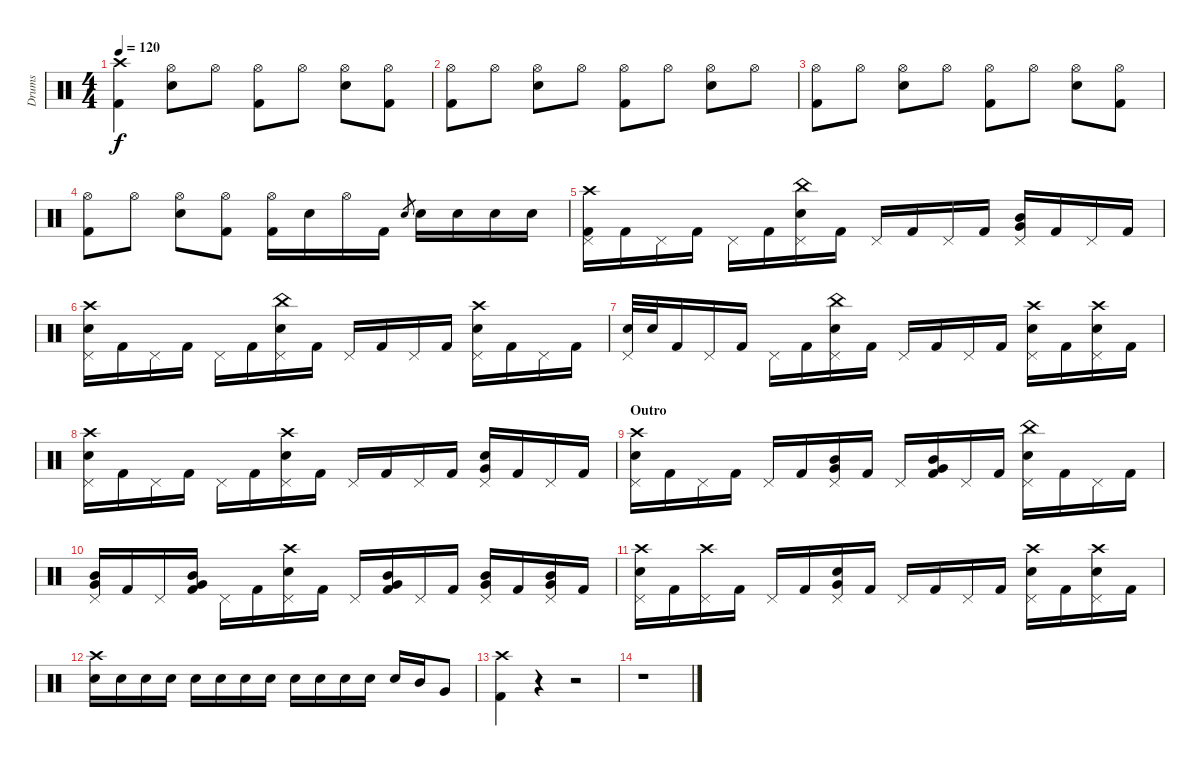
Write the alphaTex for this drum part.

\track ("Drums" "Drums") {instrument percussion}
\staff {score}
\articulation defaults
\ts (4 4)
\tempo 120
\clef neutral
\ks c
("Crash high (hit)" "Kick (hit) 2").4{dy f} ("Hi-Hat (open)" "Electric Snare (hit)").8 "Hi-Hat (open)".8 ("Hi-Hat (open)" "Kick (hit) 2").8 "Hi-Hat (open)".8 ("Hi-Hat (open)" "Electric Snare (hit)").8 ("Hi-Hat (open)" "Kick (hit) 2").8 |
("Hi-Hat (open)" "Kick (hit) 2").8 "Hi-Hat (open)".8 ("Hi-Hat (open)" "Electric Snare (hit)").8 "Hi-Hat (open)".8 ("Hi-Hat (open)" "Kick (hit) 2").8 "Hi-Hat (open)".8 ("Hi-Hat (open)" "Electric Snare (hit)").8 "Hi-Hat (open)".8 |
("Hi-Hat (open)" "Kick (hit) 2").8 "Hi-Hat (open)".8 ("Hi-Hat (open)" "Electric Snare (hit)").8 "Hi-Hat (open)".8 ("Hi-Hat (open)" "Kick (hit) 2").8 "Hi-Hat (open)".8 ("Hi-Hat (open)" "Electric Snare (hit)").8 ("Hi-Hat (open)" "Kick (hit) 2").8 |
("Hi-Hat (open)" "Kick (hit) 2").8 "Hi-Hat (open)".8 ("Hi-Hat (open)" "Electric Snare (hit)").8 ("Hi-Hat (open)" "Kick (hit) 2").8 ("Hi-Hat (open)" "Kick (hit) 2").16 "Electric Snare (hit)".16 "Hi-Hat (open)".16 "Kick (hit) 2".16 "Electric Snare (hit)".8{gr} "Electric Snare (hit)".16 "Electric Snare (hit)".16 "Electric Snare (hit)".16 "Electric Snare (hit)".16 |
("Crash high (hit)" "Kick (hit) 2" "Pedal Hi-Hat (hit)").16 "Kick (hit) 2".16 "Pedal Hi-Hat (hit)".16 "Kick (hit) 2".16 "Pedal Hi-Hat (hit)".16 "Kick (hit) 2".16 ("China (hit)" "Electric Snare (hit)" "Pedal Hi-Hat (hit)").16 "Kick (hit) 2".16 "Pedal Hi-Hat (hit)".16 "Kick (hit) 2".16 "Pedal Hi-Hat (hit)".16 "Kick (hit) 2".16 ("Mid Tom (hit)" "Very Low Tom (hit)" "Pedal Hi-Hat (hit)").16 "Kick (hit) 2".16 "Pedal Hi-Hat (hit)".16 "Kick (hit) 2".16 |
("Crash high (hit)" "Electric Snare (hit)" "Pedal Hi-Hat (hit)").16 "Kick (hit) 2".16 "Pedal Hi-Hat (hit)".16 "Kick (hit) 2".16 "Pedal Hi-Hat (hit)".16 "Kick (hit) 2".16 ("China (hit)" "Electric Snare (hit)" "Pedal Hi-Hat (hit)").16 "Kick (hit) 2".16 "Pedal Hi-Hat (hit)".16 "Kick (hit) 2".16 "Pedal Hi-Hat (hit)".16 "Kick (hit) 2".16 ("Crash high (hit)" "Electric Snare (hit)" "Pedal Hi-Hat (hit)").16 "Kick (hit) 2".16 "Pedal Hi-Hat (hit)".16 "Kick (hit) 2".16 |
("Electric Snare (hit)" "Pedal Hi-Hat (hit)").32 "Electric Snare (hit)".32 "Kick (hit) 2".16 "Pedal Hi-Hat (hit)".16 "Kick (hit) 2".16 "Pedal Hi-Hat (hit)".16 "Kick (hit) 2".16 ("China (hit)" "Electric Snare (hit)" "Pedal Hi-Hat (hit)").16 "Kick (hit) 2".16 "Pedal Hi-Hat (hit)".16 "Kick (hit) 2".16 "Pedal Hi-Hat (hit)".16 "Kick (hit) 2".16 ("Crash high (hit)" "Electric Snare (hit)" "Pedal Hi-Hat (hit)").16 "Kick (hit) 2".16 ("Crash high (hit)" "Electric Snare (hit)" "Pedal Hi-Hat (hit)").16 "Kick (hit) 2".16 |
("Crash high (hit)" "Electric Snare (hit)" "Pedal Hi-Hat (hit)").16 "Kick (hit) 2".16 "Pedal Hi-Hat (hit)".16 "Kick (hit) 2".16 "Pedal Hi-Hat (hit)".16 "Kick (hit) 2".16 ("Crash high (hit)" "Electric Snare (hit)" "Pedal Hi-Hat (hit)").16 "Kick (hit) 2".16 "Pedal Hi-Hat (hit)".16 "Kick (hit) 2".16 "Pedal Hi-Hat (hit)".16 "Kick (hit) 2".16 ("Electric Snare (hit)" "Very Low Tom (hit)" "Pedal Hi-Hat (hit)").16 "Kick (hit) 2".16 "Pedal Hi-Hat (hit)".16 "Kick (hit) 2".16 |
\section ("" "Outro")
("Crash high (hit)" "Electric Snare (hit)" "Pedal Hi-Hat (hit)").16 "Kick (hit) 2".16 "Pedal Hi-Hat (hit)".16 "Kick (hit) 2".16 "Pedal Hi-Hat (hit)".16 "Kick (hit) 2".16 ("Mid Tom (hit)" "Very Low Tom (hit)" "Pedal Hi-Hat (hit)").16 "Kick (hit) 2".16 "Pedal Hi-Hat (hit)".16 ("Mid Tom (hit)" "Very Low Tom (hit)" "Kick (hit) 2").16 "Pedal Hi-Hat (hit)".16 "Kick (hit) 2".16 ("China (hit)" "Electric Snare (hit)" "Pedal Hi-Hat (hit)").16 "Kick (hit) 2".16 "Pedal Hi-Hat (hit)".16 "Kick (hit) 2".16 |
("Mid Tom (hit)" "Very Low Tom (hit)" "Pedal Hi-Hat (hit)").16 "Kick (hit) 2".16 "Pedal Hi-Hat (hit)".16 ("Mid Tom (hit)" "Very Low Tom (hit)" "Kick (hit) 2").16 "Pedal Hi-Hat (hit)".16 "Kick (hit) 2".16 ("Crash high (hit)" "Electric Snare (hit)" "Pedal Hi-Hat (hit)").16 "Kick (hit) 2".16 "Pedal Hi-Hat (hit)".16 ("Mid Tom (hit)" "Very Low Tom (hit)" "Kick (hit) 2").16 "Pedal Hi-Hat (hit)".16 "Kick (hit) 2".16 ("Mid Tom (hit)" "Very Low Tom (hit)" "Pedal Hi-Hat (hit)").16 "Kick (hit) 2".16 ("Mid Tom (hit)" "Very Low Tom (hit)" "Pedal Hi-Hat (hit)").16 "Kick (hit) 2".16 |
("Crash high (hit)" "Electric Snare (hit)" "Pedal Hi-Hat (hit)").16 "Kick (hit) 2".16 ("Crash high (hit)" "Pedal Hi-Hat (hit)").16 "Kick (hit) 2".16 "Pedal Hi-Hat (hit)".16 "Kick (hit) 2".16 ("Electric Snare (hit)" "Very Low Tom (hit)" "Pedal Hi-Hat (hit)").16 "Kick (hit) 2".16 "Pedal Hi-Hat (hit)".16 "Kick (hit) 2".16 "Pedal Hi-Hat (hit)".16 "Kick (hit) 2".16 ("Crash high (hit)" "Electric Snare (hit)" "Pedal Hi-Hat (hit)").16 "Kick (hit) 2".16 ("Crash high (hit)" "Electric Snare (hit)" "Pedal Hi-Hat (hit)").16 "Kick (hit) 2".16 |
("Crash high (hit)" "Electric Snare (hit)").16 "Electric Snare (hit)".16 "Electric Snare (hit)".16 "Electric Snare (hit)".16 "Electric Snare (hit)".16 "Electric Snare (hit)".16 "Electric Snare (hit)".16 "Electric Snare (hit)".16 "Electric Snare (hit)".16 "Electric Snare (hit)".16 "Electric Snare (hit)".16 "Electric Snare (hit)".16 "Electric Snare (hit)".16 "Mid Tom (hit)".16 "Very Low Tom (hit)".8 |
("Crash high (hit)" "Kick (hit) 2").4 r.4 r.2 |
r.1
